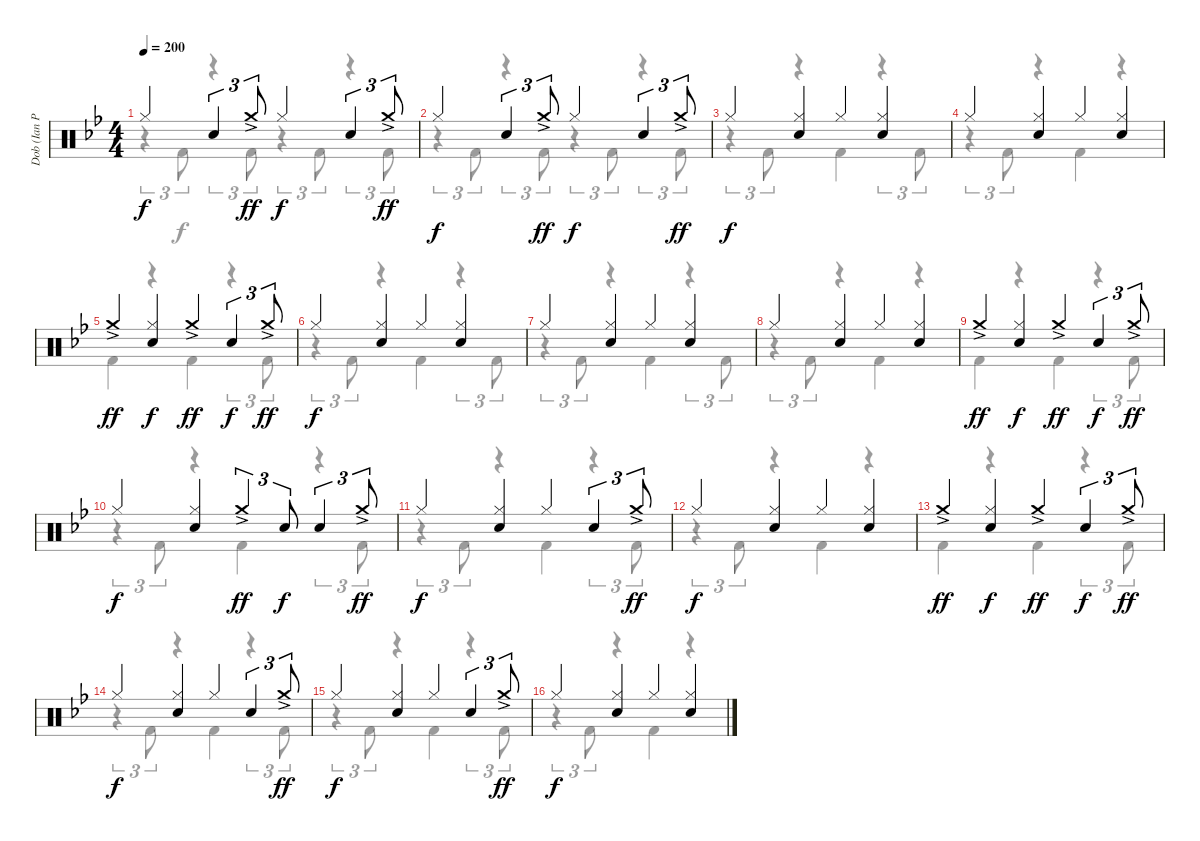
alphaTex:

\track ("Dob (Ian Paice)" "Dob (Ian P") {instrument percussion}
\staff {score}
\articulation defaults
\voice
\ts (4 4)
\tempo 200
\clef neutral
\ks bb "Hi-Hat (closed)".4{dy f} "Electric Snare (hit)".4{tu (3 2)} "Crash medium (hit)"{ac}.8{tu (3 2) dy ff} "Hi-Hat (closed)".4{dy f} "Electric Snare (hit)".4{tu (3 2)} "Crash medium (hit)"{ac}.8{tu (3 2) dy ff}
|
"Hi-Hat (closed)".4{dy f} "Electric Snare (hit)".4{tu (3 2)} "Crash medium (hit)"{ac}.8{tu (3 2) dy ff} "Hi-Hat (closed)".4{dy f} "Electric Snare (hit)".4{tu (3 2)} "Crash medium (hit)"{ac}.8{tu (3 2) dy ff} |
"Hi-Hat (closed)".4{dy f} ("Hi-Hat (closed)" "Electric Snare (hit)").4 "Hi-Hat (closed)".4 ("Hi-Hat (closed)" "Electric Snare (hit)").4 |
"Hi-Hat (closed)".4 ("Hi-Hat (closed)" "Electric Snare (hit)").4 "Hi-Hat (closed)".4 ("Hi-Hat (closed)" "Electric Snare (hit)").4 |
"Crash medium (hit)"{ac}.4{dy ff} ("Hi-Hat (closed)" "Electric Snare (hit)").4{dy f} "Crash medium (hit)"{ac}.4{dy ff} "Electric Snare (hit)".4{tu (3 2) dy f} "Crash medium (hit)"{ac}.8{tu (3 2) dy ff} |
"Hi-Hat (closed)".4{dy f} ("Hi-Hat (closed)" "Electric Snare (hit)").4 "Hi-Hat (closed)".4 ("Hi-Hat (closed)" "Electric Snare (hit)").4 |
"Hi-Hat (closed)".4 ("Hi-Hat (closed)" "Electric Snare (hit)").4 "Hi-Hat (closed)".4 ("Hi-Hat (closed)" "Electric Snare (hit)").4 |
"Hi-Hat (closed)".4 ("Hi-Hat (closed)" "Electric Snare (hit)").4 "Hi-Hat (closed)".4 ("Hi-Hat (closed)" "Electric Snare (hit)").4 |
"Crash medium (hit)"{ac}.4{dy ff} ("Hi-Hat (closed)" "Electric Snare (hit)").4{dy f} "Crash medium (hit)"{ac}.4{dy ff} "Electric Snare (hit)".4{tu (3 2) dy f} "Crash medium (hit)"{ac}.8{tu (3 2) dy ff} |
"Hi-Hat (closed)".4{dy f} ("Hi-Hat (closed)" "Electric Snare (hit)").4 "Crash medium (hit)"{ac}.4{tu (3 2) dy ff} "Electric Snare (hit)".8{tu (3 2) dy f} "Electric Snare (hit)".4{tu (3 2)} "Crash medium (hit)"{ac}.8{tu (3 2) dy ff} |
"Hi-Hat (closed)".4{dy f} ("Hi-Hat (closed)" "Electric Snare (hit)").4 "Hi-Hat (closed)".4 "Electric Snare (hit)".4{tu (3 2)} "Crash medium (hit)"{ac}.8{tu (3 2) dy ff} |
"Hi-Hat (closed)".4{dy f} ("Hi-Hat (closed)" "Electric Snare (hit)").4 "Hi-Hat (closed)".4 ("Hi-Hat (closed)" "Electric Snare (hit)").4 |
"Crash medium (hit)"{ac}.4{dy ff} ("Hi-Hat (closed)" "Electric Snare (hit)").4{dy f} "Crash medium (hit)"{ac}.4{dy ff} "Electric Snare (hit)".4{tu (3 2) dy f} "Crash medium (hit)"{ac}.8{tu (3 2) dy ff} |
"Hi-Hat (closed)".4{dy f} ("Hi-Hat (closed)" "Electric Snare (hit)").4 "Hi-Hat (closed)".4 "Electric Snare (hit)".4{tu (3 2)} "Crash medium (hit)"{ac}.8{tu (3 2) dy ff} |
"Hi-Hat (closed)".4{dy f} ("Hi-Hat (closed)" "Electric Snare (hit)").4 "Hi-Hat (closed)".4 "Electric Snare (hit)".4{tu (3 2)} "Crash medium (hit)"{ac}.8{tu (3 2) dy ff} |
"Hi-Hat (closed)".4{dy f} ("Hi-Hat (closed)" "Electric Snare (hit)").4 "Hi-Hat (closed)".4 ("Hi-Hat (closed)" "Electric Snare (hit)").4
\voice
\clef neutral
\ottava regular
\simile none
\ks bb
r.4{tu (3 2) dy f} "Kick (hit) 2".8{tu (3 2)} r.4{tu (3 2)} "Kick (hit) 2".8{tu (3 2)} r.4{tu (3 2)} "Kick (hit) 2".8{tu (3 2)} r.4{tu (3 2)} "Kick (hit) 2".8{tu (3 2)} |
r.4{tu (3 2)} "Kick (hit) 2".8{tu (3 2)} r.4{tu (3 2)} "Kick (hit) 2".8{tu (3 2)} r.4{tu (3 2)} "Kick (hit) 2".8{tu (3 2)} r.4{tu (3 2)} "Kick (hit) 2".8{tu (3 2)} |
r.4{tu (3 2)} "Kick (hit) 2".8{tu (3 2)} r.4 "Kick (hit) 2".4 r.4{tu (3 2)} "Kick (hit) 2".8{tu (3 2)} |
r.4{tu (3 2)} "Kick (hit) 2".8{tu (3 2)} r.4 "Kick (hit) 2".4 r.4 |
"Kick (hit) 2".4 r.4 "Kick (hit) 2".4 r.4{tu (3 2)} "Kick (hit) 2".8{tu (3 2)} |
r.4{tu (3 2)} "Kick (hit) 2".8{tu (3 2)} r.4 "Kick (hit) 2".4 r.4{tu (3 2)} "Kick (hit) 2".8{tu (3 2)} |
r.4{tu (3 2)} "Kick (hit) 2".8{tu (3 2)} r.4 "Kick (hit) 2".4 r.4{tu (3 2)} "Kick (hit) 2".8{tu (3 2)} |
r.4{tu (3 2)} "Kick (hit) 2".8{tu (3 2)} r.4 "Kick (hit) 2".4 r.4 |
"Kick (hit) 2".4 r.4 "Kick (hit) 2".4 r.4{tu (3 2)} "Kick (hit) 2".8{tu (3 2)} |
r.4{tu (3 2)} "Kick (hit) 2".8{tu (3 2)} r.4 "Kick (hit) 2".4 r.4{tu (3 2)} "Kick (hit) 2".8{tu (3 2)} |
r.4{tu (3 2)} "Kick (hit) 2".8{tu (3 2)} r.4 "Kick (hit) 2".4 r.4{tu (3 2)} "Kick (hit) 2".8{tu (3 2)} |
r.4{tu (3 2)} "Kick (hit) 2".8{tu (3 2)} r.4 "Kick (hit) 2".4 r.4 |
"Kick (hit) 2".4 r.4 "Kick (hit) 2".4 r.4{tu (3 2)} "Kick (hit) 2".8{tu (3 2)} |
r.4{tu (3 2)} "Kick (hit) 2".8{tu (3 2)} r.4 "Kick (hit) 2".4 r.4{tu (3 2)} "Kick (hit) 2".8{tu (3 2)} |
r.4{tu (3 2)} "Kick (hit) 2".8{tu (3 2)} r.4 "Kick (hit) 2".4 r.4{tu (3 2)} "Kick (hit) 2".8{tu (3 2)} |
r.4{tu (3 2)} "Kick (hit) 2".8{tu (3 2)} r.4 "Kick (hit) 2".4 r.4
